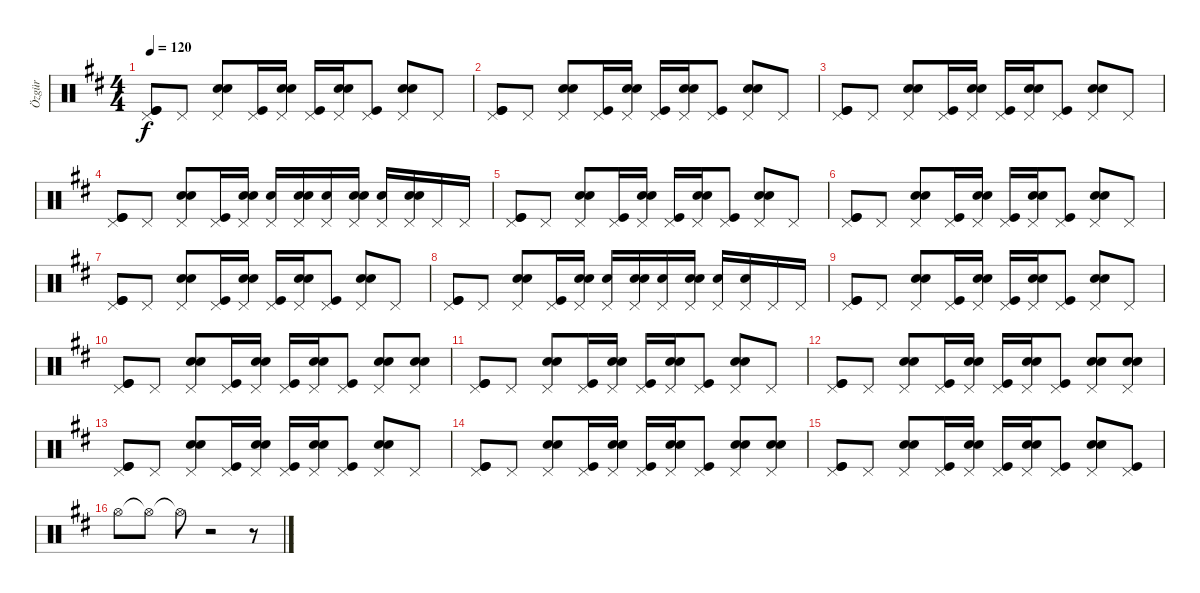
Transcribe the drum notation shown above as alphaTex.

\track ("Özgür" "Özgür") {instrument percussion}
\staff {score}
\articulation defaults
\ts (4 4)
\tempo 120
\clef neutral
\ks d
("Pedal Hi-Hat (hit)" "Kick (hit)" "Kick (hit)").8{dy f} "Pedal Hi-Hat (hit)".8 ("Pedal Hi-Hat (hit)" "Electric Snare (hit)" "Electric Snare (hit)").8 ("Pedal Hi-Hat (hit)" "Kick (hit)").16 ("Pedal Hi-Hat (hit)" "Electric Snare (hit)" "Electric Snare (hit)").16 ("Pedal Hi-Hat (hit)" "Kick (hit)").16 ("Pedal Hi-Hat (hit)" "Electric Snare (hit)" "Electric Snare (hit)").16 ("Pedal Hi-Hat (hit)" "Kick (hit)").8 ("Pedal Hi-Hat (hit)" "Electric Snare (hit)" "Electric Snare (hit)").8 "Pedal Hi-Hat (hit)".8 |
("Pedal Hi-Hat (hit)" "Kick (hit)" "Kick (hit)").8 "Pedal Hi-Hat (hit)".8 ("Pedal Hi-Hat (hit)" "Electric Snare (hit)" "Electric Snare (hit)").8 ("Pedal Hi-Hat (hit)" "Kick (hit)").16 ("Pedal Hi-Hat (hit)" "Electric Snare (hit)" "Electric Snare (hit)").16 ("Pedal Hi-Hat (hit)" "Kick (hit)").16 ("Pedal Hi-Hat (hit)" "Electric Snare (hit)" "Electric Snare (hit)").16 ("Pedal Hi-Hat (hit)" "Kick (hit)").8 ("Pedal Hi-Hat (hit)" "Electric Snare (hit)" "Electric Snare (hit)").8 "Pedal Hi-Hat (hit)".8 |
("Pedal Hi-Hat (hit)" "Kick (hit)" "Kick (hit)").8 "Pedal Hi-Hat (hit)".8 ("Pedal Hi-Hat (hit)" "Electric Snare (hit)" "Electric Snare (hit)").8 ("Pedal Hi-Hat (hit)" "Kick (hit)").16 ("Pedal Hi-Hat (hit)" "Electric Snare (hit)" "Electric Snare (hit)").16 ("Pedal Hi-Hat (hit)" "Kick (hit)").16 ("Pedal Hi-Hat (hit)" "Electric Snare (hit)" "Electric Snare (hit)").16 ("Pedal Hi-Hat (hit)" "Kick (hit)").8 ("Pedal Hi-Hat (hit)" "Electric Snare (hit)" "Electric Snare (hit)").8 "Pedal Hi-Hat (hit)".8 |
("Pedal Hi-Hat (hit)" "Kick (hit)" "Kick (hit)").8 "Pedal Hi-Hat (hit)".8 ("Pedal Hi-Hat (hit)" "Electric Snare (hit)" "Electric Snare (hit)").8 ("Pedal Hi-Hat (hit)" "Kick (hit)").16 ("Pedal Hi-Hat (hit)" "Electric Snare (hit)" "Electric Snare (hit)").16 ("Pedal Hi-Hat (hit)" "Electric Snare (hit)").16 ("Pedal Hi-Hat (hit)" "Electric Snare (hit)" "Electric Snare (hit)").16 ("Pedal Hi-Hat (hit)" "Electric Snare (hit)").16 ("Pedal Hi-Hat (hit)" "Electric Snare (hit)" "Electric Snare (hit)").16 ("Pedal Hi-Hat (hit)" "Electric Snare (hit)").16 ("Pedal Hi-Hat (hit)" "Electric Snare (hit)" "Electric Snare (hit)").16 "Pedal Hi-Hat (hit)".16 "Pedal Hi-Hat (hit)".16 |
("Pedal Hi-Hat (hit)" "Kick (hit)" "Kick (hit)").8 "Pedal Hi-Hat (hit)".8 ("Pedal Hi-Hat (hit)" "Electric Snare (hit)" "Electric Snare (hit)").8 ("Pedal Hi-Hat (hit)" "Kick (hit)").16 ("Pedal Hi-Hat (hit)" "Electric Snare (hit)" "Electric Snare (hit)").16 ("Pedal Hi-Hat (hit)" "Kick (hit)").16 ("Pedal Hi-Hat (hit)" "Electric Snare (hit)" "Electric Snare (hit)").16 ("Pedal Hi-Hat (hit)" "Kick (hit)").8 ("Pedal Hi-Hat (hit)" "Electric Snare (hit)" "Electric Snare (hit)").8 "Pedal Hi-Hat (hit)".8 |
("Pedal Hi-Hat (hit)" "Kick (hit)" "Kick (hit)").8 "Pedal Hi-Hat (hit)".8 ("Pedal Hi-Hat (hit)" "Electric Snare (hit)" "Electric Snare (hit)").8 ("Pedal Hi-Hat (hit)" "Kick (hit)").16 ("Pedal Hi-Hat (hit)" "Electric Snare (hit)" "Electric Snare (hit)").16 ("Pedal Hi-Hat (hit)" "Kick (hit)").16 ("Pedal Hi-Hat (hit)" "Electric Snare (hit)" "Electric Snare (hit)").16 ("Pedal Hi-Hat (hit)" "Kick (hit)").8 ("Pedal Hi-Hat (hit)" "Electric Snare (hit)" "Electric Snare (hit)").8 "Pedal Hi-Hat (hit)".8 |
("Pedal Hi-Hat (hit)" "Kick (hit)" "Kick (hit)").8 "Pedal Hi-Hat (hit)".8 ("Pedal Hi-Hat (hit)" "Electric Snare (hit)" "Electric Snare (hit)").8 ("Pedal Hi-Hat (hit)" "Kick (hit)").16 ("Pedal Hi-Hat (hit)" "Electric Snare (hit)" "Electric Snare (hit)").16 ("Pedal Hi-Hat (hit)" "Kick (hit)").16 ("Pedal Hi-Hat (hit)" "Electric Snare (hit)" "Electric Snare (hit)").16 ("Pedal Hi-Hat (hit)" "Kick (hit)").8 ("Pedal Hi-Hat (hit)" "Electric Snare (hit)" "Electric Snare (hit)").8 "Pedal Hi-Hat (hit)".8 |
("Pedal Hi-Hat (hit)" "Kick (hit)" "Kick (hit)").8 "Pedal Hi-Hat (hit)".8 ("Pedal Hi-Hat (hit)" "Electric Snare (hit)" "Electric Snare (hit)").8 ("Pedal Hi-Hat (hit)" "Kick (hit)").16 ("Pedal Hi-Hat (hit)" "Electric Snare (hit)" "Electric Snare (hit)").16 ("Pedal Hi-Hat (hit)" "Electric Snare (hit)").16 ("Pedal Hi-Hat (hit)" "Electric Snare (hit)" "Electric Snare (hit)").16 ("Pedal Hi-Hat (hit)" "Electric Snare (hit)").16 ("Pedal Hi-Hat (hit)" "Electric Snare (hit)" "Electric Snare (hit)").16 ("Pedal Hi-Hat (hit)" "Electric Snare (hit)").16 ("Pedal Hi-Hat (hit)" "Electric Snare (hit)").16 "Pedal Hi-Hat (hit)".16 "Pedal Hi-Hat (hit)".16 |
("Pedal Hi-Hat (hit)" "Kick (hit)" "Kick (hit)").8 "Pedal Hi-Hat (hit)".8 ("Pedal Hi-Hat (hit)" "Electric Snare (hit)" "Electric Snare (hit)").8 ("Pedal Hi-Hat (hit)" "Kick (hit)").16 ("Pedal Hi-Hat (hit)" "Electric Snare (hit)" "Electric Snare (hit)").16 ("Pedal Hi-Hat (hit)" "Kick (hit)").16 ("Pedal Hi-Hat (hit)" "Electric Snare (hit)" "Electric Snare (hit)").16 ("Pedal Hi-Hat (hit)" "Kick (hit)").8 ("Pedal Hi-Hat (hit)" "Electric Snare (hit)" "Electric Snare (hit)").8 "Pedal Hi-Hat (hit)".8 |
("Pedal Hi-Hat (hit)" "Kick (hit)" "Kick (hit)").8 "Pedal Hi-Hat (hit)".8 ("Pedal Hi-Hat (hit)" "Electric Snare (hit)" "Electric Snare (hit)").8 ("Pedal Hi-Hat (hit)" "Kick (hit)").16 ("Pedal Hi-Hat (hit)" "Electric Snare (hit)" "Electric Snare (hit)").16 ("Pedal Hi-Hat (hit)" "Kick (hit)").16 ("Pedal Hi-Hat (hit)" "Electric Snare (hit)" "Electric Snare (hit)").16 ("Pedal Hi-Hat (hit)" "Kick (hit)").8 ("Pedal Hi-Hat (hit)" "Electric Snare (hit)" "Electric Snare (hit)").8 ("Pedal Hi-Hat (hit)" "Electric Snare (hit)" "Electric Snare (hit)").8 |
("Pedal Hi-Hat (hit)" "Kick (hit)" "Kick (hit)").8 "Pedal Hi-Hat (hit)".8 ("Pedal Hi-Hat (hit)" "Electric Snare (hit)" "Electric Snare (hit)").8 ("Pedal Hi-Hat (hit)" "Kick (hit)").16 ("Pedal Hi-Hat (hit)" "Electric Snare (hit)" "Electric Snare (hit)").16 ("Pedal Hi-Hat (hit)" "Kick (hit)").16 ("Pedal Hi-Hat (hit)" "Electric Snare (hit)" "Electric Snare (hit)").16 ("Pedal Hi-Hat (hit)" "Kick (hit)").8 ("Pedal Hi-Hat (hit)" "Electric Snare (hit)" "Electric Snare (hit)").8 "Pedal Hi-Hat (hit)".8 |
("Pedal Hi-Hat (hit)" "Kick (hit)" "Kick (hit)").8 "Pedal Hi-Hat (hit)".8 ("Pedal Hi-Hat (hit)" "Electric Snare (hit)" "Electric Snare (hit)").8 ("Pedal Hi-Hat (hit)" "Kick (hit)").16 ("Pedal Hi-Hat (hit)" "Electric Snare (hit)" "Electric Snare (hit)").16 ("Pedal Hi-Hat (hit)" "Kick (hit)").16 ("Pedal Hi-Hat (hit)" "Electric Snare (hit)" "Electric Snare (hit)").16 ("Pedal Hi-Hat (hit)" "Kick (hit)").8 ("Pedal Hi-Hat (hit)" "Electric Snare (hit)" "Electric Snare (hit)").8 ("Pedal Hi-Hat (hit)" "Electric Snare (hit)" "Electric Snare (hit)").8 |
("Pedal Hi-Hat (hit)" "Kick (hit)" "Kick (hit)").8 "Pedal Hi-Hat (hit)".8 ("Pedal Hi-Hat (hit)" "Electric Snare (hit)" "Electric Snare (hit)").8 ("Pedal Hi-Hat (hit)" "Kick (hit)").16 ("Pedal Hi-Hat (hit)" "Electric Snare (hit)" "Electric Snare (hit)").16 ("Pedal Hi-Hat (hit)" "Kick (hit)").16 ("Pedal Hi-Hat (hit)" "Electric Snare (hit)" "Electric Snare (hit)").16 ("Pedal Hi-Hat (hit)" "Kick (hit)").8 ("Pedal Hi-Hat (hit)" "Electric Snare (hit)" "Electric Snare (hit)").8 "Pedal Hi-Hat (hit)".8 |
("Pedal Hi-Hat (hit)" "Kick (hit)" "Kick (hit)").8 "Pedal Hi-Hat (hit)".8 ("Pedal Hi-Hat (hit)" "Electric Snare (hit)" "Electric Snare (hit)").8 ("Pedal Hi-Hat (hit)" "Kick (hit)").16 ("Pedal Hi-Hat (hit)" "Electric Snare (hit)" "Electric Snare (hit)").16 ("Pedal Hi-Hat (hit)" "Kick (hit)").16 ("Pedal Hi-Hat (hit)" "Electric Snare (hit)" "Electric Snare (hit)").16 ("Pedal Hi-Hat (hit)" "Kick (hit)").8 ("Pedal Hi-Hat (hit)" "Electric Snare (hit)" "Electric Snare (hit)").8 ("Pedal Hi-Hat (hit)" "Electric Snare (hit)" "Electric Snare (hit)").8 |
("Pedal Hi-Hat (hit)" "Kick (hit)" "Kick (hit)").8 "Pedal Hi-Hat (hit)".8 ("Pedal Hi-Hat (hit)" "Electric Snare (hit)" "Electric Snare (hit)").8 ("Pedal Hi-Hat (hit)" "Kick (hit)").16 ("Pedal Hi-Hat (hit)" "Electric Snare (hit)" "Electric Snare (hit)").16 ("Pedal Hi-Hat (hit)" "Kick (hit)").16 ("Pedal Hi-Hat (hit)" "Electric Snare (hit)" "Electric Snare (hit)").16 ("Pedal Hi-Hat (hit)" "Kick (hit)").8 ("Pedal Hi-Hat (hit)" "Electric Snare (hit)" "Electric Snare (hit)").8 ("Pedal Hi-Hat (hit)" "Kick (hit)").8 |
"Hi-Hat (open)".8 "Hi-Hat (open)"{t}.8 "Hi-Hat (open)"{t}.8 r.2 r.8
